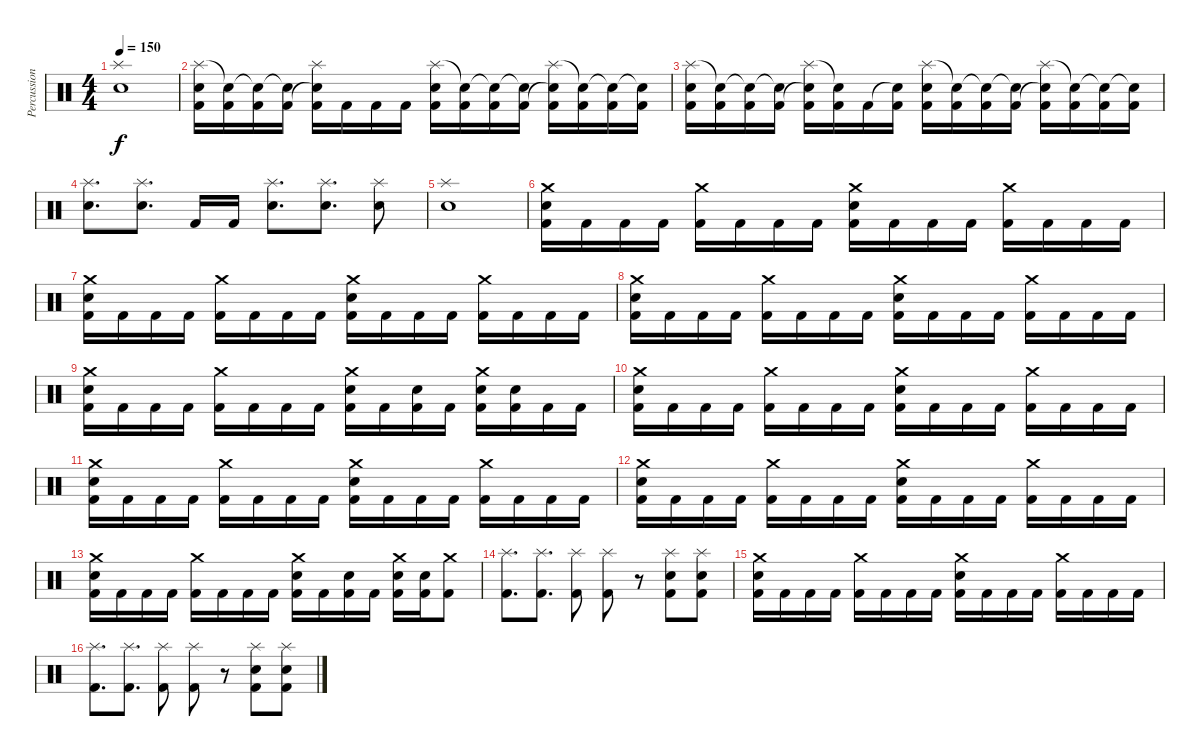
\track ("Percussions" "Percussion") {instrument percussion}
\staff {score}
\articulation defaults
\ts (4 4)
\tempo 150
\clef neutral
\ks c
("Splash (hit)" "Electric Snare (hit)").1{dy f} |
("Splash (hit)" "Electric Snare (hit)" "Kick (hit) 2").16 ("Snare (hit)"{t} "Kick (hit) 2").16 ("Snare (hit)"{t} "Kick (hit) 2").16 ("Snare (hit)"{t} "Kick (hit) 2").16 ("Splash (hit)" "Snare (hit) 2"{t} "Kick (hit) 2").16 "Kick (hit) 2".16 "Kick (hit) 2".16 "Kick (hit) 2".16 ("Splash (hit)" "Snare (hit) 2" "Kick (hit) 2").16 ("Snare (hit)"{t} "Kick (hit) 2").16 ("Snare (hit)"{t} "Kick (hit) 2").16 ("Snare (hit)"{t} "Kick (hit) 2").16 ("Splash (hit)" "Snare (hit) 2"{t} "Kick (hit) 2").16 ("Snare (hit)"{t} "Kick (hit) 2").16 ("Snare (hit)"{t} "Kick (hit) 2").16 ("Snare (hit)"{t} "Kick (hit) 2").16 |
("Splash (hit)" "Electric Snare (hit)" "Kick (hit) 2").16 ("Snare (hit)"{t} "Kick (hit) 2").16 ("Snare (hit)"{t} "Kick (hit) 2").16 ("Snare (hit)"{t} "Kick (hit) 2").16 ("Splash (hit)" "Snare (hit) 2"{t} "Kick (hit) 2").16 ("Snare (hit)"{t} "Kick (hit) 2").16 "Kick (hit) 2".16 ("Snare (hit)"{t} "Kick (hit) 2").16 ("Splash (hit)" "Snare (hit) 2" "Kick (hit) 2").16 ("Snare (hit)"{t} "Kick (hit) 2").16 ("Snare (hit)"{t} "Kick (hit) 2").16 ("Snare (hit)"{t} "Kick (hit) 2").16 ("Splash (hit)" "Snare (hit) 2"{t} "Kick (hit) 2").16 ("Snare (hit)"{t} "Kick (hit) 2").16 ("Snare (hit)"{t} "Kick (hit) 2").16 ("Snare (hit)"{t} "Kick (hit) 2").16 |
("Splash (hit)" "Electric Snare (hit)").8{d} ("Splash (hit)" "Electric Snare (hit)").8{d} "Kick (hit) 2".16 "Kick (hit) 2".16 ("Splash (hit)" "Electric Snare (hit)").8{d} ("Splash (hit)" "Electric Snare (hit)").8{d} ("Splash (hit)" "Electric Snare (hit)").8 |
("Splash (hit)" "Electric Snare (hit)").1 |
("Crash medium (hit)" "Electric Snare (hit)" "Kick (hit) 2").16 "Kick (hit) 2".16 "Kick (hit) 2".16 "Kick (hit) 2".16 ("Crash medium (hit)" "Kick (hit) 2").16 "Kick (hit) 2".16 "Kick (hit) 2".16 "Kick (hit) 2".16 ("Crash medium (hit)" "Electric Snare (hit)" "Kick (hit) 2").16 "Kick (hit) 2".16 "Kick (hit) 2".16 "Kick (hit) 2".16 ("Crash medium (hit)" "Kick (hit) 2").16 "Kick (hit) 2".16 "Kick (hit) 2".16 "Kick (hit) 2".16 |
("Crash medium (hit)" "Electric Snare (hit)" "Kick (hit) 2").16 "Kick (hit) 2".16 "Kick (hit) 2".16 "Kick (hit) 2".16 ("Crash medium (hit)" "Kick (hit) 2").16 "Kick (hit) 2".16 "Kick (hit) 2".16 "Kick (hit) 2".16 ("Crash medium (hit)" "Electric Snare (hit)" "Kick (hit) 2").16 "Kick (hit) 2".16 "Kick (hit) 2".16 "Kick (hit) 2".16 ("Crash medium (hit)" "Kick (hit) 2").16 "Kick (hit) 2".16 "Kick (hit) 2".16 "Kick (hit) 2".16 |
("Crash medium (hit)" "Electric Snare (hit)" "Kick (hit) 2").16 "Kick (hit) 2".16 "Kick (hit) 2".16 "Kick (hit) 2".16 ("Crash medium (hit)" "Kick (hit) 2").16 "Kick (hit) 2".16 "Kick (hit) 2".16 "Kick (hit) 2".16 ("Crash medium (hit)" "Electric Snare (hit)" "Kick (hit) 2").16 "Kick (hit) 2".16 "Kick (hit) 2".16 "Kick (hit) 2".16 ("Crash medium (hit)" "Kick (hit) 2").16 "Kick (hit) 2".16 "Kick (hit) 2".16 "Kick (hit) 2".16 |
("Crash medium (hit)" "Electric Snare (hit)" "Kick (hit) 2").16 "Kick (hit) 2".16 "Kick (hit) 2".16 "Kick (hit) 2".16 ("Crash medium (hit)" "Kick (hit) 2").16 "Kick (hit) 2".16 "Kick (hit) 2".16 "Kick (hit) 2".16 ("Crash medium (hit)" "Electric Snare (hit)" "Kick (hit) 2").16 "Kick (hit) 2".16 ("Snare (hit) 2" "Kick (hit) 2").16 "Kick (hit) 2".16 ("Crash medium (hit)" "Electric Snare (hit)" "Kick (hit) 2").16 ("Snare (hit) 2" "Kick (hit) 2").16 "Kick (hit) 2".16 "Kick (hit) 2".16 |
("Crash medium (hit)" "Electric Snare (hit)" "Kick (hit) 2").16 "Kick (hit) 2".16 "Kick (hit) 2".16 "Kick (hit) 2".16 ("Crash medium (hit)" "Kick (hit) 2").16 "Kick (hit) 2".16 "Kick (hit) 2".16 "Kick (hit) 2".16 ("Crash medium (hit)" "Electric Snare (hit)" "Kick (hit) 2").16 "Kick (hit) 2".16 "Kick (hit) 2".16 "Kick (hit) 2".16 ("Crash medium (hit)" "Kick (hit) 2").16 "Kick (hit) 2".16 "Kick (hit) 2".16 "Kick (hit) 2".16 |
("Crash medium (hit)" "Electric Snare (hit)" "Kick (hit) 2").16 "Kick (hit) 2".16 "Kick (hit) 2".16 "Kick (hit) 2".16 ("Crash medium (hit)" "Kick (hit) 2").16 "Kick (hit) 2".16 "Kick (hit) 2".16 "Kick (hit) 2".16 ("Crash medium (hit)" "Electric Snare (hit)" "Kick (hit) 2").16 "Kick (hit) 2".16 "Kick (hit) 2".16 "Kick (hit) 2".16 ("Crash medium (hit)" "Kick (hit) 2").16 "Kick (hit) 2".16 "Kick (hit) 2".16 "Kick (hit) 2".16 |
("Crash medium (hit)" "Electric Snare (hit)" "Kick (hit) 2").16 "Kick (hit) 2".16 "Kick (hit) 2".16 "Kick (hit) 2".16 ("Crash medium (hit)" "Kick (hit) 2").16 "Kick (hit) 2".16 "Kick (hit) 2".16 "Kick (hit) 2".16 ("Crash medium (hit)" "Electric Snare (hit)" "Kick (hit) 2").16 "Kick (hit) 2".16 "Kick (hit) 2".16 "Kick (hit) 2".16 ("Crash medium (hit)" "Kick (hit) 2").16 "Kick (hit) 2".16 "Kick (hit) 2".16 "Kick (hit) 2".16 |
("Crash medium (hit)" "Electric Snare (hit)" "Kick (hit) 2").16 "Kick (hit) 2".16 "Kick (hit) 2".16 "Kick (hit) 2".16 ("Crash medium (hit)" "Kick (hit) 2").16 "Kick (hit) 2".16 "Kick (hit) 2".16 "Kick (hit) 2".16 ("Crash medium (hit)" "Electric Snare (hit)" "Kick (hit) 2").16 "Kick (hit) 2".16 ("Snare (hit) 2" "Kick (hit) 2").16 "Kick (hit) 2".16 ("Crash medium (hit)" "Electric Snare (hit)" "Kick (hit) 2").16 ("Snare (hit) 2" "Kick (hit) 2").16 ("Crash medium (hit)" "Kick (hit) 2").8 |
("Splash (hit)" "Kick (hit) 2").8{d} ("Splash (hit)" "Kick (hit) 2").8{d} ("Splash (hit)" "Kick (hit) 2").8 ("Splash (hit)" "Kick (hit) 2").8 r.8 ("Splash (hit)" "Electric Snare (hit)" "Kick (hit) 2").8 ("Splash (hit)" "Electric Snare (hit)" "Kick (hit) 2").8 |
("Crash medium (hit)" "Electric Snare (hit)" "Kick (hit) 2").16 "Kick (hit) 2".16 "Kick (hit) 2".16 "Kick (hit) 2".16 ("Crash medium (hit)" "Kick (hit) 2").16 "Kick (hit) 2".16 "Kick (hit) 2".16 "Kick (hit) 2".16 ("Crash medium (hit)" "Electric Snare (hit)" "Kick (hit) 2").16 "Kick (hit) 2".16 "Kick (hit) 2".16 "Kick (hit) 2".16 ("Crash medium (hit)" "Kick (hit) 2").16 "Kick (hit) 2".16 "Kick (hit) 2".16 "Kick (hit) 2".16 |
("Splash (hit)" "Kick (hit) 2").8{d} ("Splash (hit)" "Kick (hit) 2").8{d} ("Splash (hit)" "Kick (hit) 2").8 ("Splash (hit)" "Kick (hit) 2").8 r.8 ("Splash (hit)" "Electric Snare (hit)" "Kick (hit) 2").8 ("Splash (hit)" "Electric Snare (hit)" "Kick (hit) 2").8
